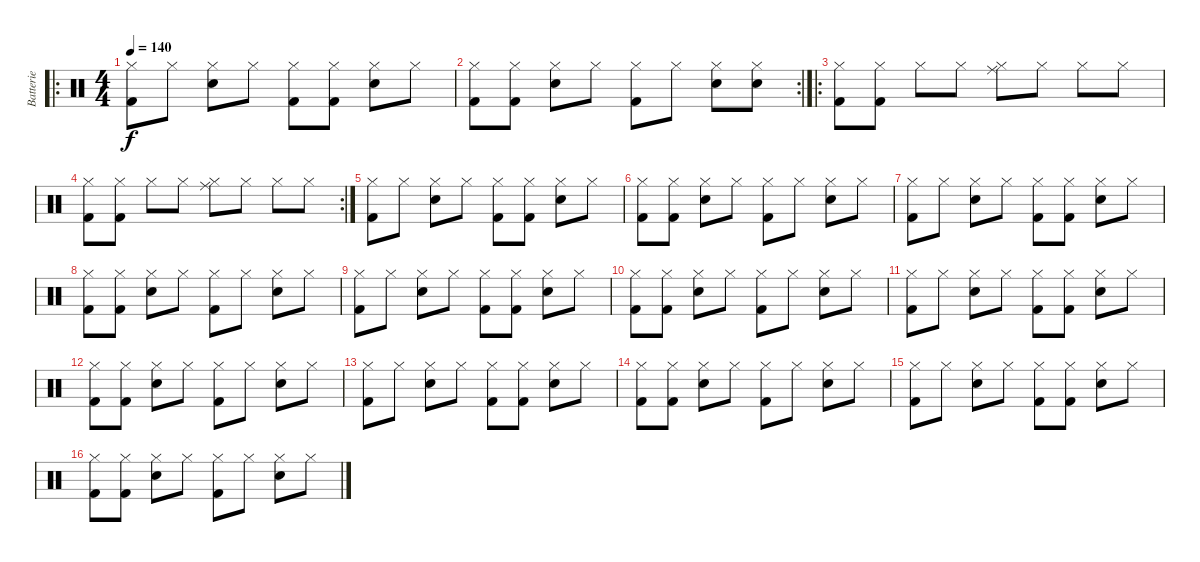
\track ("Batterie" "Batterie") {instrument percussion}
\staff {score}
\articulation defaults
\ro
\ts (4 4)
\tempo 140
\clef neutral
\ks c
("Kick (hit) 2" "Hi-Hat (closed)").8{dy f} "Hi-Hat (closed)".8 ("Electric Snare (hit)" "Hi-Hat (closed)").8 "Hi-Hat (closed)".8 ("Kick (hit) 2" "Hi-Hat (closed)").8 ("Kick (hit) 2" "Hi-Hat (closed)").8 ("Electric Snare (hit)" "Hi-Hat (closed)").8 "Hi-Hat (closed)".8 |
\rc 2
("Kick (hit) 2" "Hi-Hat (closed)").8 ("Kick (hit) 2" "Hi-Hat (closed)").8 ("Electric Snare (hit)" "Hi-Hat (closed)").8 "Hi-Hat (closed)".8 ("Kick (hit) 2" "Hi-Hat (closed)").8 "Hi-Hat (closed)".8 ("Electric Snare (hit)" "Hi-Hat (closed)").8 ("Electric Snare (hit)" "Hi-Hat (closed)").8 |
\ro
("Kick (hit) 2" "Hi-Hat (closed)").8 ("Kick (hit) 2" "Hi-Hat (closed)").8 "Hi-Hat (closed)".8 "Hi-Hat (closed)".8 ("Ride (middle)" "Hi-Hat (closed)").8 "Hi-Hat (closed)".8 "Hi-Hat (closed)".8 "Hi-Hat (closed)".8 |
\rc 2
("Kick (hit) 2" "Hi-Hat (closed)").8 ("Kick (hit) 2" "Hi-Hat (closed)").8 "Hi-Hat (closed)".8 "Hi-Hat (closed)".8 ("Ride (middle)" "Hi-Hat (closed)").8 "Hi-Hat (closed)".8 "Hi-Hat (closed)".8 "Hi-Hat (closed)".8 |
("Kick (hit) 2" "Hi-Hat (closed)").8 "Hi-Hat (closed)".8 ("Electric Snare (hit)" "Hi-Hat (closed)").8 "Hi-Hat (closed)".8 ("Kick (hit) 2" "Hi-Hat (closed)").8 ("Kick (hit) 2" "Hi-Hat (closed)").8 ("Electric Snare (hit)" "Hi-Hat (closed)").8 "Hi-Hat (closed)".8 |
("Kick (hit) 2" "Hi-Hat (closed)").8 ("Kick (hit) 2" "Hi-Hat (closed)").8 ("Electric Snare (hit)" "Hi-Hat (closed)").8 "Hi-Hat (closed)".8 ("Kick (hit) 2" "Hi-Hat (closed)").8 "Hi-Hat (closed)".8 ("Electric Snare (hit)" "Hi-Hat (closed)").8 "Hi-Hat (closed)".8 |
("Kick (hit) 2" "Hi-Hat (closed)").8 "Hi-Hat (closed)".8 ("Electric Snare (hit)" "Hi-Hat (closed)").8 "Hi-Hat (closed)".8 ("Kick (hit) 2" "Hi-Hat (closed)").8 ("Kick (hit) 2" "Hi-Hat (closed)").8 ("Electric Snare (hit)" "Hi-Hat (closed)").8 "Hi-Hat (closed)".8 |
("Kick (hit) 2" "Hi-Hat (closed)").8 ("Kick (hit) 2" "Hi-Hat (closed)").8 ("Electric Snare (hit)" "Hi-Hat (closed)").8 "Hi-Hat (closed)".8 ("Kick (hit) 2" "Hi-Hat (closed)").8 "Hi-Hat (closed)".8 ("Electric Snare (hit)" "Hi-Hat (closed)").8 "Hi-Hat (closed)".8 |
("Kick (hit) 2" "Hi-Hat (closed)").8 "Hi-Hat (closed)".8 ("Electric Snare (hit)" "Hi-Hat (closed)").8 "Hi-Hat (closed)".8 ("Kick (hit) 2" "Hi-Hat (closed)").8 ("Kick (hit) 2" "Hi-Hat (closed)").8 ("Electric Snare (hit)" "Hi-Hat (closed)").8 "Hi-Hat (closed)".8 |
("Kick (hit) 2" "Hi-Hat (closed)").8 ("Kick (hit) 2" "Hi-Hat (closed)").8 ("Electric Snare (hit)" "Hi-Hat (closed)").8 "Hi-Hat (closed)".8 ("Kick (hit) 2" "Hi-Hat (closed)").8 "Hi-Hat (closed)".8 ("Electric Snare (hit)" "Hi-Hat (closed)").8 "Hi-Hat (closed)".8 |
("Kick (hit) 2" "Hi-Hat (closed)").8 "Hi-Hat (closed)".8 ("Electric Snare (hit)" "Hi-Hat (closed)").8 "Hi-Hat (closed)".8 ("Kick (hit) 2" "Hi-Hat (closed)").8 ("Kick (hit) 2" "Hi-Hat (closed)").8 ("Electric Snare (hit)" "Hi-Hat (closed)").8 "Hi-Hat (closed)".8 |
("Kick (hit) 2" "Hi-Hat (closed)").8 ("Kick (hit) 2" "Hi-Hat (closed)").8 ("Electric Snare (hit)" "Hi-Hat (closed)").8 "Hi-Hat (closed)".8 ("Kick (hit) 2" "Hi-Hat (closed)").8 "Hi-Hat (closed)".8 ("Electric Snare (hit)" "Hi-Hat (closed)").8 "Hi-Hat (closed)".8 |
("Kick (hit) 2" "Hi-Hat (closed)").8 "Hi-Hat (closed)".8 ("Electric Snare (hit)" "Hi-Hat (closed)").8 "Hi-Hat (closed)".8 ("Kick (hit) 2" "Hi-Hat (closed)").8 ("Kick (hit) 2" "Hi-Hat (closed)").8 ("Electric Snare (hit)" "Hi-Hat (closed)").8 "Hi-Hat (closed)".8 |
("Kick (hit) 2" "Hi-Hat (closed)").8 ("Kick (hit) 2" "Hi-Hat (closed)").8 ("Electric Snare (hit)" "Hi-Hat (closed)").8 "Hi-Hat (closed)".8 ("Kick (hit) 2" "Hi-Hat (closed)").8 "Hi-Hat (closed)".8 ("Electric Snare (hit)" "Hi-Hat (closed)").8 "Hi-Hat (closed)".8 |
("Kick (hit) 2" "Hi-Hat (closed)").8 "Hi-Hat (closed)".8 ("Electric Snare (hit)" "Hi-Hat (closed)").8 "Hi-Hat (closed)".8 ("Kick (hit) 2" "Hi-Hat (closed)").8 ("Kick (hit) 2" "Hi-Hat (closed)").8 ("Electric Snare (hit)" "Hi-Hat (closed)").8 "Hi-Hat (closed)".8 |
("Kick (hit) 2" "Hi-Hat (closed)").8 ("Kick (hit) 2" "Hi-Hat (closed)").8 ("Electric Snare (hit)" "Hi-Hat (closed)").8 "Hi-Hat (closed)".8 ("Kick (hit) 2" "Hi-Hat (closed)").8 "Hi-Hat (closed)".8 ("Electric Snare (hit)" "Hi-Hat (closed)").8 "Hi-Hat (closed)".8
